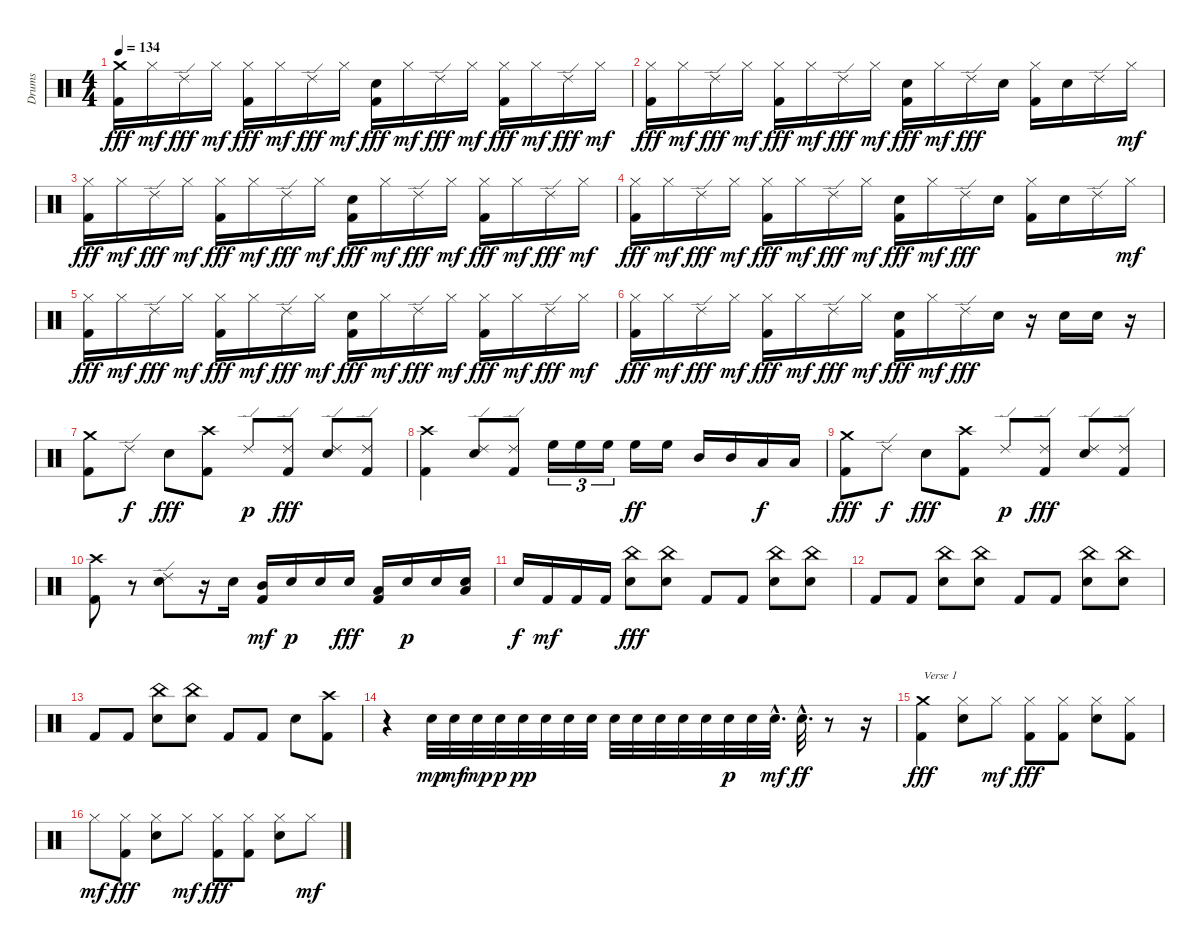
\track ("Drums" "Drums") {instrument percussion}
\staff {score}
\articulation defaults
\ts (4 4)
\tempo 134
\clef neutral
\ks c
("Crash medium (hit)" "Kick (hit) 2").16{dy fff} "Hi-Hat (closed)".16{dy mf} "Ride (edge) 2".16{dy fff} "Hi-Hat (closed)".16{dy mf} ("Hi-Hat (closed)" "Kick (hit) 2").16{dy fff} "Hi-Hat (closed)".16{dy mf} "Ride (edge) 2".16{dy fff} "Hi-Hat (closed)".16{dy mf} ("Snare (hit) 2" "Kick (hit) 2").16{dy fff} "Hi-Hat (closed)".16{dy mf} "Ride (edge) 2".16{dy fff} "Hi-Hat (closed)".16{dy mf} ("Hi-Hat (closed)" "Kick (hit) 2").16{dy fff} "Hi-Hat (closed)".16{dy mf} "Ride (edge) 2".16{dy fff} "Hi-Hat (closed)".16{dy mf} |
("Hi-Hat (closed)" "Kick (hit) 2").16{dy fff} "Hi-Hat (closed)".16{dy mf} "Ride (edge) 2".16{dy fff} "Hi-Hat (closed)".16{dy mf} ("Hi-Hat (closed)" "Kick (hit) 2").16{dy fff} "Hi-Hat (closed)".16{dy mf} "Ride (edge) 2".16{dy fff} "Hi-Hat (closed)".16{dy mf} ("Snare (hit) 2" "Kick (hit) 2").16{dy fff} "Hi-Hat (closed)".16{dy mf} "Ride (edge) 2".16{dy fff} "Snare (hit) 2".16 ("Hi-Hat (closed)" "Kick (hit) 2").16 "Snare (hit) 2".16 "Ride (edge) 2".16 "Hi-Hat (closed)".16{dy mf} |
("Hi-Hat (closed)" "Kick (hit) 2").16{dy fff} "Hi-Hat (closed)".16{dy mf} "Ride (edge) 2".16{dy fff} "Hi-Hat (closed)".16{dy mf} ("Hi-Hat (closed)" "Kick (hit) 2").16{dy fff} "Hi-Hat (closed)".16{dy mf} "Ride (edge) 2".16{dy fff} "Hi-Hat (closed)".16{dy mf} ("Snare (hit) 2" "Kick (hit) 2").16{dy fff} "Hi-Hat (closed)".16{dy mf} "Ride (edge) 2".16{dy fff} "Hi-Hat (closed)".16{dy mf} ("Hi-Hat (closed)" "Kick (hit) 2").16{dy fff} "Hi-Hat (closed)".16{dy mf} "Ride (edge) 2".16{dy fff} "Hi-Hat (closed)".16{dy mf} |
("Hi-Hat (closed)" "Kick (hit) 2").16{dy fff} "Hi-Hat (closed)".16{dy mf} "Ride (edge) 2".16{dy fff} "Hi-Hat (closed)".16{dy mf} ("Hi-Hat (closed)" "Kick (hit) 2").16{dy fff} "Hi-Hat (closed)".16{dy mf} "Ride (edge) 2".16{dy fff} "Hi-Hat (closed)".16{dy mf} ("Snare (hit) 2" "Kick (hit) 2").16{dy fff} "Hi-Hat (closed)".16{dy mf} "Ride (edge) 2".16{dy fff} "Snare (hit) 2".16 ("Hi-Hat (closed)" "Kick (hit) 2").16 "Snare (hit) 2".16 "Ride (edge) 2".16 "Hi-Hat (closed)".16{dy mf} |
("Hi-Hat (closed)" "Kick (hit) 2").16{dy fff} "Hi-Hat (closed)".16{dy mf} "Ride (edge) 2".16{dy fff} "Hi-Hat (closed)".16{dy mf} ("Hi-Hat (closed)" "Kick (hit) 2").16{dy fff} "Hi-Hat (closed)".16{dy mf} "Ride (edge) 2".16{dy fff} "Hi-Hat (closed)".16{dy mf} ("Snare (hit) 2" "Kick (hit) 2").16{dy fff} "Hi-Hat (closed)".16{dy mf} "Ride (edge) 2".16{dy fff} "Hi-Hat (closed)".16{dy mf} ("Hi-Hat (closed)" "Kick (hit) 2").16{dy fff} "Hi-Hat (closed)".16{dy mf} "Ride (edge) 2".16{dy fff} "Hi-Hat (closed)".16{dy mf} |
("Hi-Hat (closed)" "Kick (hit) 2").16{dy fff} "Hi-Hat (closed)".16{dy mf} "Ride (edge) 2".16{dy fff} "Hi-Hat (closed)".16{dy mf} ("Hi-Hat (closed)" "Kick (hit) 2").16{dy fff} "Hi-Hat (closed)".16{dy mf} "Ride (edge) 2".16{dy fff} "Hi-Hat (closed)".16{dy mf} ("Snare (hit) 2" "Kick (hit) 2").16{dy fff} "Hi-Hat (closed)".16{dy mf} "Ride (edge) 2".16{dy fff} "Snare (hit) 2".16 r.16 "Snare (hit) 2".16 "Snare (hit) 2".16 r.16 |
("Crash medium (hit)" "Kick (hit) 2").8 "Ride (edge) 2".8{dy f} "Snare (hit) 2".8{dy fff} ("Kick (hit) 2" "Crash high (hit)").8 "Ride (edge) 2".8{dy p} ("Ride (edge) 2" "Kick (hit) 2").8{dy fff} ("Ride (edge) 2" "Snare (hit) 2").8 ("Ride (edge) 2" "Kick (hit) 2").8 |
("Kick (hit) 2" "Crash high (hit)").4 ("Ride (edge) 2" "Snare (hit) 2").8 ("Ride (edge) 2" "Kick (hit) 2").8 "High Floor Tom (hit)".16{tu (3 2)} "High Floor Tom (hit)".16{tu (3 2)} "High Floor Tom (hit)".16{tu (3 2)} "High Floor Tom (hit)".16{dy ff} "High Floor Tom (hit)".16 "Mid Tom (hit)".16 "Mid Tom (hit)".16 "Low Tom (hit)".16{dy f} "Low Tom (hit)".16 |
("Crash medium (hit)" "Kick (hit) 2").8{dy fff} "Ride (edge) 2".8{dy f} "Snare (hit) 2".8{dy fff} ("Kick (hit) 2" "Crash high (hit)").8 "Ride (edge) 2".8{dy p} ("Ride (edge) 2" "Kick (hit) 2").8{dy fff} ("Ride (edge) 2" "Snare (hit) 2").8 ("Ride (edge) 2" "Kick (hit) 2").8 |
("Kick (hit) 2" "Crash high (hit)").8 r.8 ("Ride (edge) 2" "Snare (hit) 2").8 r.16 "Snare (hit) 2".16 ("Mid Tom (hit)" "Kick (hit) 2").16{dy mf} "Snare (hit) 2".16{dy p} "Snare (hit) 2".16 "Snare (hit) 2".16{dy fff} ("Low Tom (hit)" "Kick (hit) 2").16 "Snare (hit) 2".16{dy p} "Snare (hit) 2".16 ("Low Tom (hit)" "Snare (hit) 2").16 |
"Snare (hit) 2".16{dy f} "Kick (hit) 2".16{dy mf} "Kick (hit) 2".16 "Kick (hit) 2".16 ("China (hit)" "Snare (hit) 2").8{dy fff} ("China (hit)" "Snare (hit) 2").8 "Kick (hit) 2".8 "Kick (hit) 2".8 ("China (hit)" "Snare (hit) 2").8 ("China (hit)" "Snare (hit) 2").8 |
"Kick (hit) 2".8 "Kick (hit) 2".8 ("China (hit)" "Snare (hit) 2").8 ("China (hit)" "Snare (hit) 2").8 "Kick (hit) 2".8 "Kick (hit) 2".8 ("China (hit)" "Snare (hit) 2").8 ("China (hit)" "Snare (hit) 2").8 |
"Kick (hit) 2".8 "Kick (hit) 2".8 ("China (hit)" "Snare (hit) 2").8 ("China (hit)" "Snare (hit) 2").8 "Kick (hit) 2".8 "Kick (hit) 2".8 "Snare (hit) 2".8 ("Kick (hit) 2" "Crash high (hit)").8 |
r.4 "Snare (hit) 2".32{dy mp} "Snare (hit) 2".32{dy mf} "Snare (hit) 2".32{dy mp} "Snare (hit) 2".32{dy p} "Snare (hit) 2".32{dy pp} "Snare (hit) 2".32 "Snare (hit) 2".32 "Snare (hit) 2".32 "Snare (hit) 2".32 "Snare (hit) 2".32 "Snare (hit) 2".32 "Snare (hit) 2".32 "Snare (hit) 2".32 "Snare (hit) 2".32{dy p} "Snare (hit) 2".32 "Snare (hit) 2"{hac}.32{d dy mf} "Snare (hit) 2"{hac}.32{d dy ff} r.8 r.16 |
("Crash medium (hit)" "Kick (hit) 2").4{txt "Verse 1" dy fff} ("Hi-Hat (closed)" "Snare (hit) 2").8 "Hi-Hat (closed)".8{dy mf} ("Hi-Hat (closed)" "Kick (hit) 2").8{dy fff} ("Hi-Hat (closed)" "Kick (hit) 2").8 ("Hi-Hat (closed)" "Snare (hit) 2").8 ("Hi-Hat (closed)" "Kick (hit) 2").8 |
"Hi-Hat (closed)".8{dy mf} ("Hi-Hat (closed)" "Kick (hit) 2").8{dy fff} ("Hi-Hat (closed)" "Snare (hit) 2").8 "Hi-Hat (closed)".8{dy mf} ("Hi-Hat (closed)" "Kick (hit) 2").8{dy fff} ("Hi-Hat (closed)" "Kick (hit) 2").8 ("Hi-Hat (closed)" "Snare (hit) 2").8 "Hi-Hat (closed)".8{dy mf}
